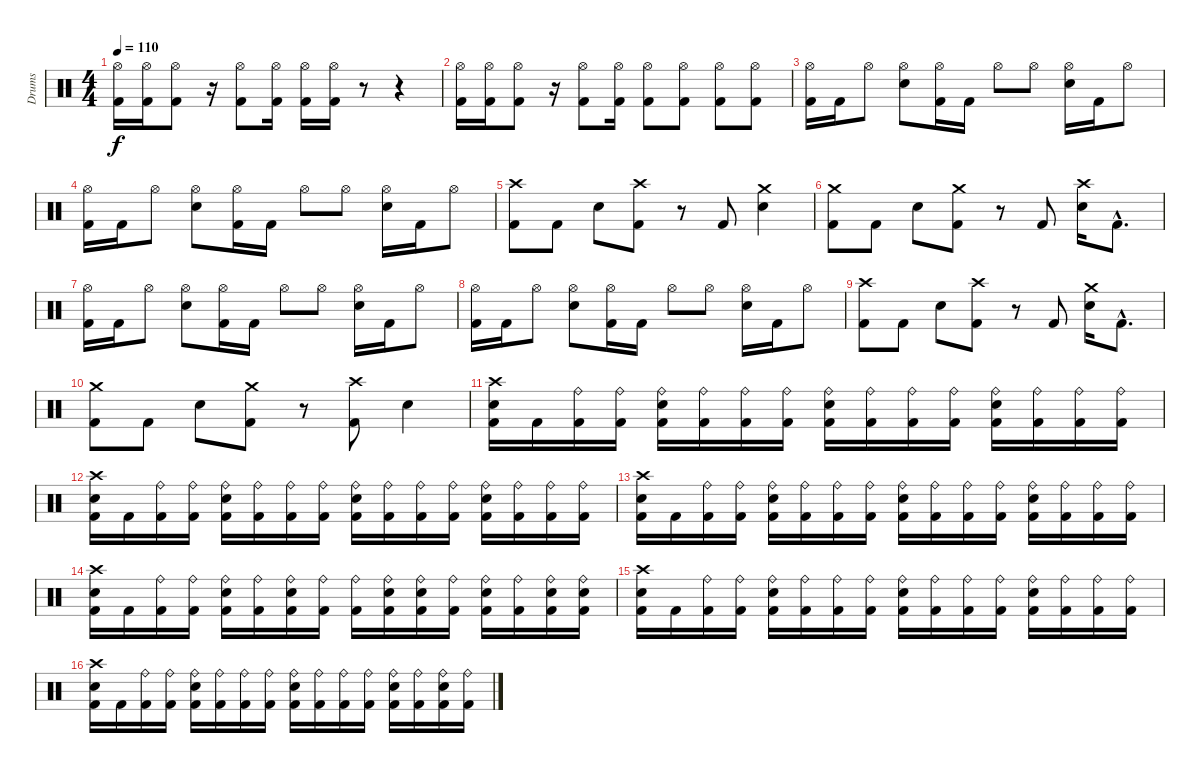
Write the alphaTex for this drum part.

\track ("Drums" "Drums") {instrument percussion}
\staff {score}
\articulation defaults
\ts (4 4)
\tempo 110
\clef neutral
\ks c
("Hi-Hat (open)" "Kick (hit) 2").16{dy f} ("Hi-Hat (open)" "Kick (hit) 2").16 ("Hi-Hat (open)" "Kick (hit) 2").8 r.16 ("Hi-Hat (open)" "Kick (hit) 2").8 ("Hi-Hat (open)" "Kick (hit) 2").16 ("Hi-Hat (open)" "Kick (hit) 2").16 ("Hi-Hat (open)" "Kick (hit) 2").16 r.8 r.4 |
("Hi-Hat (open)" "Kick (hit) 2").16 ("Hi-Hat (open)" "Kick (hit) 2").16 ("Hi-Hat (open)" "Kick (hit) 2").8 r.16 ("Hi-Hat (open)" "Kick (hit) 2").8 ("Hi-Hat (open)" "Kick (hit) 2").16 ("Hi-Hat (open)" "Kick (hit) 2").8 ("Hi-Hat (open)" "Kick (hit) 2").8 ("Hi-Hat (open)" "Kick (hit) 2").8 ("Hi-Hat (open)" "Kick (hit) 2").8 |
("Hi-Hat (open)" "Kick (hit) 2").16 "Kick (hit) 2".16 "Hi-Hat (open)".8 ("Hi-Hat (open)" "Electric Snare (hit)").8 ("Hi-Hat (open)" "Kick (hit) 2").16 "Kick (hit) 2".16 "Hi-Hat (open)".8 "Hi-Hat (open)".8 ("Hi-Hat (open)" "Electric Snare (hit)").16 "Kick (hit) 2".16 "Hi-Hat (open)".8 |
("Hi-Hat (open)" "Kick (hit) 2").16 "Kick (hit) 2".16 "Hi-Hat (open)".8 ("Hi-Hat (open)" "Electric Snare (hit)").8 ("Hi-Hat (open)" "Kick (hit) 2").16 "Kick (hit) 2".16 "Hi-Hat (open)".8 "Hi-Hat (open)".8 ("Hi-Hat (open)" "Electric Snare (hit)").16 "Kick (hit) 2".16 "Hi-Hat (open)".8 |
("Crash high (hit)" "Kick (hit) 2").8 "Kick (hit) 2".8 "Electric Snare (hit)".8 ("Crash high (hit)" "Kick (hit) 2").8 r.8 "Kick (hit) 2".8 ("Crash medium (hit)" "Electric Snare (hit)").4 |
("Crash medium (hit)" "Kick (hit) 2").8 "Kick (hit) 2".8 "Electric Snare (hit)".8 ("Crash medium (hit)" "Kick (hit) 2").8 r.8 "Kick (hit) 2".8 ("Crash high (hit)" "Electric Snare (hit)").16 "Kick (hit) 2"{hac}.8{d} |
("Hi-Hat (open)" "Kick (hit) 2").16 "Kick (hit) 2".16 "Hi-Hat (open)".8 ("Hi-Hat (open)" "Electric Snare (hit)").8 ("Hi-Hat (open)" "Kick (hit) 2").16 "Kick (hit) 2".16 "Hi-Hat (open)".8 "Hi-Hat (open)".8 ("Hi-Hat (open)" "Electric Snare (hit)").16 "Kick (hit) 2".16 "Hi-Hat (open)".8 |
("Hi-Hat (open)" "Kick (hit) 2").16 "Kick (hit) 2".16 "Hi-Hat (open)".8 ("Hi-Hat (open)" "Electric Snare (hit)").8 ("Hi-Hat (open)" "Kick (hit) 2").16 "Kick (hit) 2".16 "Hi-Hat (open)".8 "Hi-Hat (open)".8 ("Hi-Hat (open)" "Electric Snare (hit)").16 "Kick (hit) 2".16 "Hi-Hat (open)".8 |
("Crash high (hit)" "Kick (hit) 2").8 "Kick (hit) 2".8 "Electric Snare (hit)".8 ("Crash high (hit)" "Kick (hit) 2").8 r.8 "Kick (hit) 2".8 ("Crash medium (hit)" "Electric Snare (hit)").16 "Kick (hit) 2"{hac}.8{d} |
("Crash medium (hit)" "Kick (hit) 2").8 "Kick (hit) 2".8 "Electric Snare (hit)".8 ("Crash medium (hit)" "Kick (hit) 2").8 r.8 ("Crash high (hit)" "Kick (hit) 2").8 "Electric Snare (hit)".4 |
("Crash high (hit)" "Electric Snare (hit)" "Kick (hit) 2").16 "Kick (hit) 2".16 ("Ride (bell)" "Kick (hit) 2").16 ("Ride (bell)" "Kick (hit) 2").16 ("Ride (bell)" "Electric Snare (hit)" "Kick (hit) 2").16 ("Ride (bell)" "Kick (hit) 2").16 ("Ride (bell)" "Kick (hit) 2").16 ("Ride (bell)" "Kick (hit) 2").16 ("Ride (bell)" "Electric Snare (hit)" "Kick (hit) 2").16 ("Ride (bell)" "Kick (hit) 2").16 ("Ride (bell)" "Kick (hit) 2").16 ("Ride (bell)" "Kick (hit) 2").16 ("Ride (bell)" "Electric Snare (hit)" "Kick (hit) 2").16 ("Ride (bell)" "Kick (hit) 2").16 ("Ride (bell)" "Kick (hit) 2").16 ("Ride (bell)" "Kick (hit) 2").16 |
("Crash high (hit)" "Electric Snare (hit)" "Kick (hit) 2").16 "Kick (hit) 2".16 ("Ride (bell)" "Kick (hit) 2").16 ("Ride (bell)" "Kick (hit) 2").16 ("Ride (bell)" "Electric Snare (hit)" "Kick (hit) 2").16 ("Ride (bell)" "Kick (hit) 2").16 ("Ride (bell)" "Kick (hit) 2").16 ("Ride (bell)" "Kick (hit) 2").16 ("Ride (bell)" "Electric Snare (hit)" "Kick (hit) 2").16 ("Ride (bell)" "Kick (hit) 2").16 ("Ride (bell)" "Kick (hit) 2").16 ("Ride (bell)" "Kick (hit) 2").16 ("Ride (bell)" "Electric Snare (hit)" "Kick (hit) 2").16 ("Ride (bell)" "Kick (hit) 2").16 ("Ride (bell)" "Kick (hit) 2").16 ("Ride (bell)" "Kick (hit) 2").16 |
("Crash high (hit)" "Electric Snare (hit)" "Kick (hit) 2").16 "Kick (hit) 2".16 ("Ride (bell)" "Kick (hit) 2").16 ("Ride (bell)" "Kick (hit) 2").16 ("Ride (bell)" "Electric Snare (hit)" "Kick (hit) 2").16 ("Ride (bell)" "Kick (hit) 2").16 ("Ride (bell)" "Kick (hit) 2").16 ("Ride (bell)" "Kick (hit) 2").16 ("Ride (bell)" "Electric Snare (hit)" "Kick (hit) 2").16 ("Ride (bell)" "Kick (hit) 2").16 ("Ride (bell)" "Kick (hit) 2").16 ("Ride (bell)" "Kick (hit) 2").16 ("Ride (bell)" "Electric Snare (hit)" "Kick (hit) 2").16 ("Ride (bell)" "Kick (hit) 2").16 ("Ride (bell)" "Kick (hit) 2").16 ("Ride (bell)" "Kick (hit) 2").16 |
("Crash high (hit)" "Electric Snare (hit)" "Kick (hit) 2").16 "Kick (hit) 2".16 ("Ride (bell)" "Kick (hit) 2").16 ("Ride (bell)" "Kick (hit) 2").16 ("Ride (bell)" "Electric Snare (hit)" "Kick (hit) 2").16 ("Ride (bell)" "Kick (hit) 2").16 ("Ride (bell)" "Electric Snare (hit)" "Kick (hit) 2").16 ("Ride (bell)" "Kick (hit) 2").16 ("Ride (bell)" "Kick (hit) 2").16 ("Ride (bell)" "Electric Snare (hit)" "Kick (hit) 2").16 ("Ride (bell)" "Electric Snare (hit)" "Kick (hit) 2").16 ("Ride (bell)" "Kick (hit) 2").16 ("Ride (bell)" "Electric Snare (hit)" "Kick (hit) 2").16 ("Ride (bell)" "Kick (hit) 2").16 ("Ride (bell)" "Electric Snare (hit)" "Kick (hit) 2").16 ("Ride (bell)" "Electric Snare (hit)" "Kick (hit) 2").16 |
("Crash high (hit)" "Electric Snare (hit)" "Kick (hit) 2").16 "Kick (hit) 2".16 ("Ride (bell)" "Kick (hit) 2").16 ("Ride (bell)" "Kick (hit) 2").16 ("Ride (bell)" "Electric Snare (hit)" "Kick (hit) 2").16 ("Ride (bell)" "Kick (hit) 2").16 ("Ride (bell)" "Kick (hit) 2").16 ("Ride (bell)" "Kick (hit) 2").16 ("Ride (bell)" "Electric Snare (hit)" "Kick (hit) 2").16 ("Ride (bell)" "Kick (hit) 2").16 ("Ride (bell)" "Kick (hit) 2").16 ("Ride (bell)" "Kick (hit) 2").16 ("Ride (bell)" "Electric Snare (hit)" "Kick (hit) 2").16 ("Ride (bell)" "Kick (hit) 2").16 ("Ride (bell)" "Kick (hit) 2").16 ("Ride (bell)" "Kick (hit) 2").16 |
("Crash high (hit)" "Electric Snare (hit)" "Kick (hit) 2").16 "Kick (hit) 2".16 ("Ride (bell)" "Kick (hit) 2").16 ("Ride (bell)" "Kick (hit) 2").16 ("Ride (bell)" "Electric Snare (hit)" "Kick (hit) 2").16 ("Ride (bell)" "Kick (hit) 2").16 ("Ride (bell)" "Kick (hit) 2").16 ("Ride (bell)" "Kick (hit) 2").16 ("Ride (bell)" "Electric Snare (hit)" "Kick (hit) 2").16 ("Ride (bell)" "Kick (hit) 2").16 ("Ride (bell)" "Kick (hit) 2").16 ("Ride (bell)" "Kick (hit) 2").16 ("Ride (bell)" "Electric Snare (hit)" "Kick (hit) 2").16 ("Ride (bell)" "Kick (hit) 2").16 ("Ride (bell)" "Electric Snare (hit)" "Kick (hit) 2").16 ("Ride (bell)" "Kick (hit) 2").16
